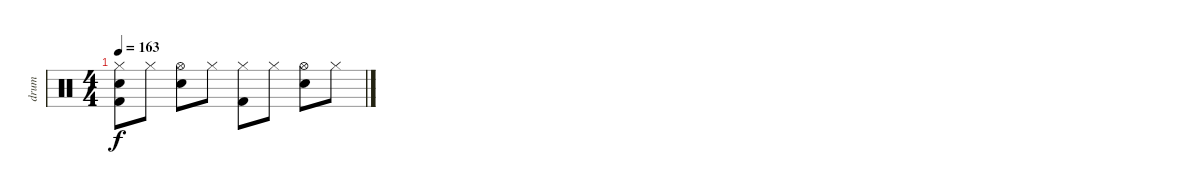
\track ("drum" "drum") {instrument percussion}
\staff {score}
\articulation defaults
\ts (4 4)
\tempo 163
\clef neutral
\ks c
("Hi-Hat (closed)" "Electric Snare (hit)" "Kick (hit) 2").8{dy f} "Hi-Hat (closed)".8 ("Hi-Hat (open)" "Electric Snare (hit)").8 "Hi-Hat (closed)".8 ("Hi-Hat (closed)" "Kick (hit) 2").8 "Hi-Hat (closed)".8 ("Hi-Hat (open)" "Electric Snare (hit)").8 "Hi-Hat (closed)".8
